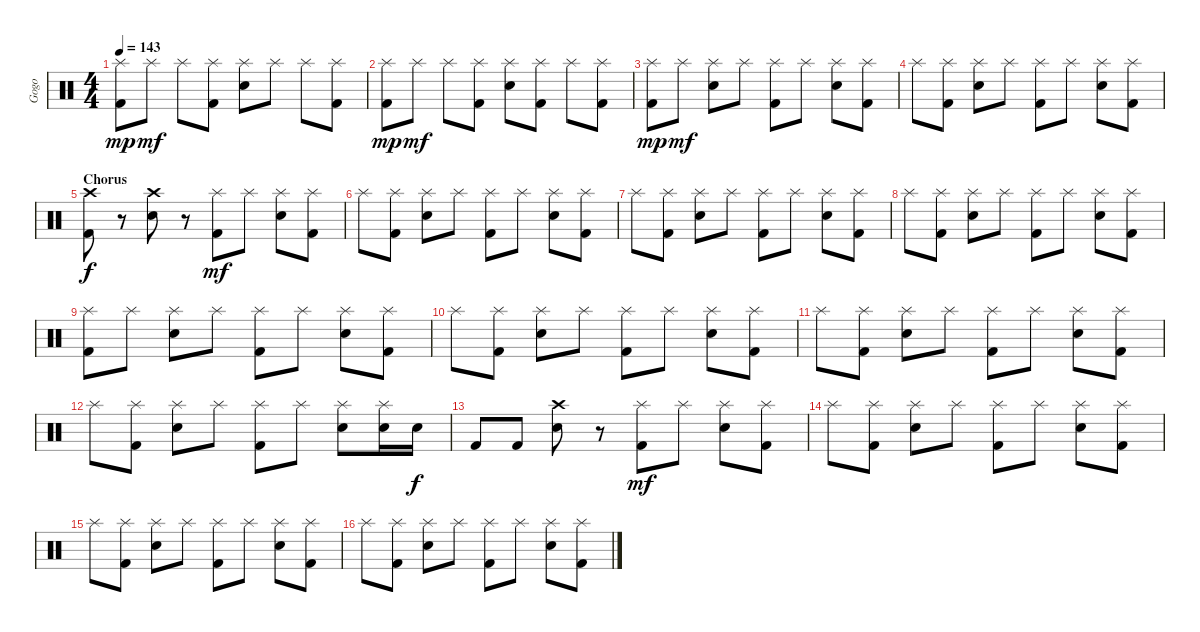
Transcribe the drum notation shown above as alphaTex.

\track ("Gogo" "Gogo") {instrument percussion}
\staff {score}
\articulation defaults
\ts (4 4)
\tempo 143
\clef neutral
\ks c
("Splash (hit)" "Kick (hit) 2").8{dy mp} "Splash (hit)".8{dy mf} "Splash (hit)".8 ("Splash (hit)" "Kick (hit) 2").8 ("Splash (hit)" "Electric Snare (hit)").8 "Splash (hit)".8 "Splash (hit)".8 ("Splash (hit)" "Kick (hit) 2").8 |
("Splash (hit)" "Kick (hit) 2").8{dy mp} "Splash (hit)".8{dy mf} "Splash (hit)".8 ("Splash (hit)" "Kick (hit) 2").8 ("Splash (hit)" "Electric Snare (hit)").8 ("Splash (hit)" "Kick (hit) 2").8 "Splash (hit)".8 ("Splash (hit)" "Kick (hit) 2").8 |
("Splash (hit)" "Kick (hit) 2").8{dy mp} "Splash (hit)".8{dy mf} ("Splash (hit)" "Electric Snare (hit)").8 "Splash (hit)".8 ("Splash (hit)" "Kick (hit) 2").8 "Splash (hit)".8 ("Splash (hit)" "Electric Snare (hit)").8 ("Splash (hit)" "Kick (hit) 2").8 |
"Splash (hit)".8 ("Splash (hit)" "Kick (hit) 2").8 ("Splash (hit)" "Electric Snare (hit)").8 "Splash (hit)".8 ("Splash (hit)" "Kick (hit) 2").8 "Splash (hit)".8 ("Splash (hit)" "Electric Snare (hit)").8 ("Splash (hit)" "Kick (hit) 2").8 |
\section ("" "Chorus")
("Crash high (hit)" "Kick (hit) 2").8{dy f} r.8 ("Crash high (hit)" "Electric Snare (hit)").8 r.8 ("Splash (hit)" "Kick (hit) 2").8{dy mf} "Splash (hit)".8 ("Splash (hit)" "Electric Snare (hit)").8 ("Splash (hit)" "Kick (hit) 2").8 |
"Splash (hit)".8 ("Splash (hit)" "Kick (hit) 2").8 ("Splash (hit)" "Electric Snare (hit)").8 "Splash (hit)".8 ("Splash (hit)" "Kick (hit) 2").8 "Splash (hit)".8 ("Splash (hit)" "Electric Snare (hit)").8 ("Splash (hit)" "Kick (hit) 2").8 |
"Splash (hit)".8 ("Splash (hit)" "Kick (hit) 2").8 ("Splash (hit)" "Electric Snare (hit)").8 "Splash (hit)".8 ("Splash (hit)" "Kick (hit) 2").8 "Splash (hit)".8 ("Splash (hit)" "Electric Snare (hit)").8 ("Splash (hit)" "Kick (hit) 2").8 |
"Splash (hit)".8 ("Splash (hit)" "Kick (hit) 2").8 ("Splash (hit)" "Electric Snare (hit)").8 "Splash (hit)".8 ("Splash (hit)" "Kick (hit) 2").8 "Splash (hit)".8 ("Splash (hit)" "Electric Snare (hit)").8 ("Splash (hit)" "Kick (hit) 2").8 |
("Splash (hit)" "Kick (hit) 2").8 "Splash (hit)".8 ("Splash (hit)" "Electric Snare (hit)").8 "Splash (hit)".8 ("Splash (hit)" "Kick (hit) 2").8 "Splash (hit)".8 ("Splash (hit)" "Electric Snare (hit)").8 ("Splash (hit)" "Kick (hit) 2").8 |
"Splash (hit)".8 ("Splash (hit)" "Kick (hit) 2").8 ("Splash (hit)" "Electric Snare (hit)").8 "Splash (hit)".8 ("Splash (hit)" "Kick (hit) 2").8 "Splash (hit)".8 ("Splash (hit)" "Electric Snare (hit)").8 ("Splash (hit)" "Kick (hit) 2").8 |
"Splash (hit)".8 ("Splash (hit)" "Kick (hit) 2").8 ("Splash (hit)" "Electric Snare (hit)").8 "Splash (hit)".8 ("Splash (hit)" "Kick (hit) 2").8 "Splash (hit)".8 ("Splash (hit)" "Electric Snare (hit)").8 ("Splash (hit)" "Kick (hit) 2").8 |
"Splash (hit)".8 ("Splash (hit)" "Kick (hit) 2").8 ("Splash (hit)" "Electric Snare (hit)").8 "Splash (hit)".8 ("Splash (hit)" "Kick (hit) 2").8 "Splash (hit)".8 ("Splash (hit)" "Electric Snare (hit)").8 ("Splash (hit)" "Electric Snare (hit)").16 "Electric Snare (hit)".16{dy f} |
"Kick (hit) 2".8 "Kick (hit) 2".8 ("Crash high (hit)" "Electric Snare (hit)").8 r.8 ("Splash (hit)" "Kick (hit) 2").8{dy mf} "Splash (hit)".8 ("Splash (hit)" "Electric Snare (hit)").8 ("Splash (hit)" "Kick (hit) 2").8 |
"Splash (hit)".8 ("Splash (hit)" "Kick (hit) 2").8 ("Splash (hit)" "Electric Snare (hit)").8 "Splash (hit)".8 ("Splash (hit)" "Kick (hit) 2").8 "Splash (hit)".8 ("Splash (hit)" "Electric Snare (hit)").8 ("Splash (hit)" "Kick (hit) 2").8 |
"Splash (hit)".8 ("Splash (hit)" "Kick (hit) 2").8 ("Splash (hit)" "Electric Snare (hit)").8 "Splash (hit)".8 ("Splash (hit)" "Kick (hit) 2").8 "Splash (hit)".8 ("Splash (hit)" "Electric Snare (hit)").8 ("Splash (hit)" "Kick (hit) 2").8 |
"Splash (hit)".8 ("Splash (hit)" "Kick (hit) 2").8 ("Splash (hit)" "Electric Snare (hit)").8 "Splash (hit)".8 ("Splash (hit)" "Kick (hit) 2").8 "Splash (hit)".8 ("Splash (hit)" "Electric Snare (hit)").8 ("Splash (hit)" "Kick (hit) 2").8
